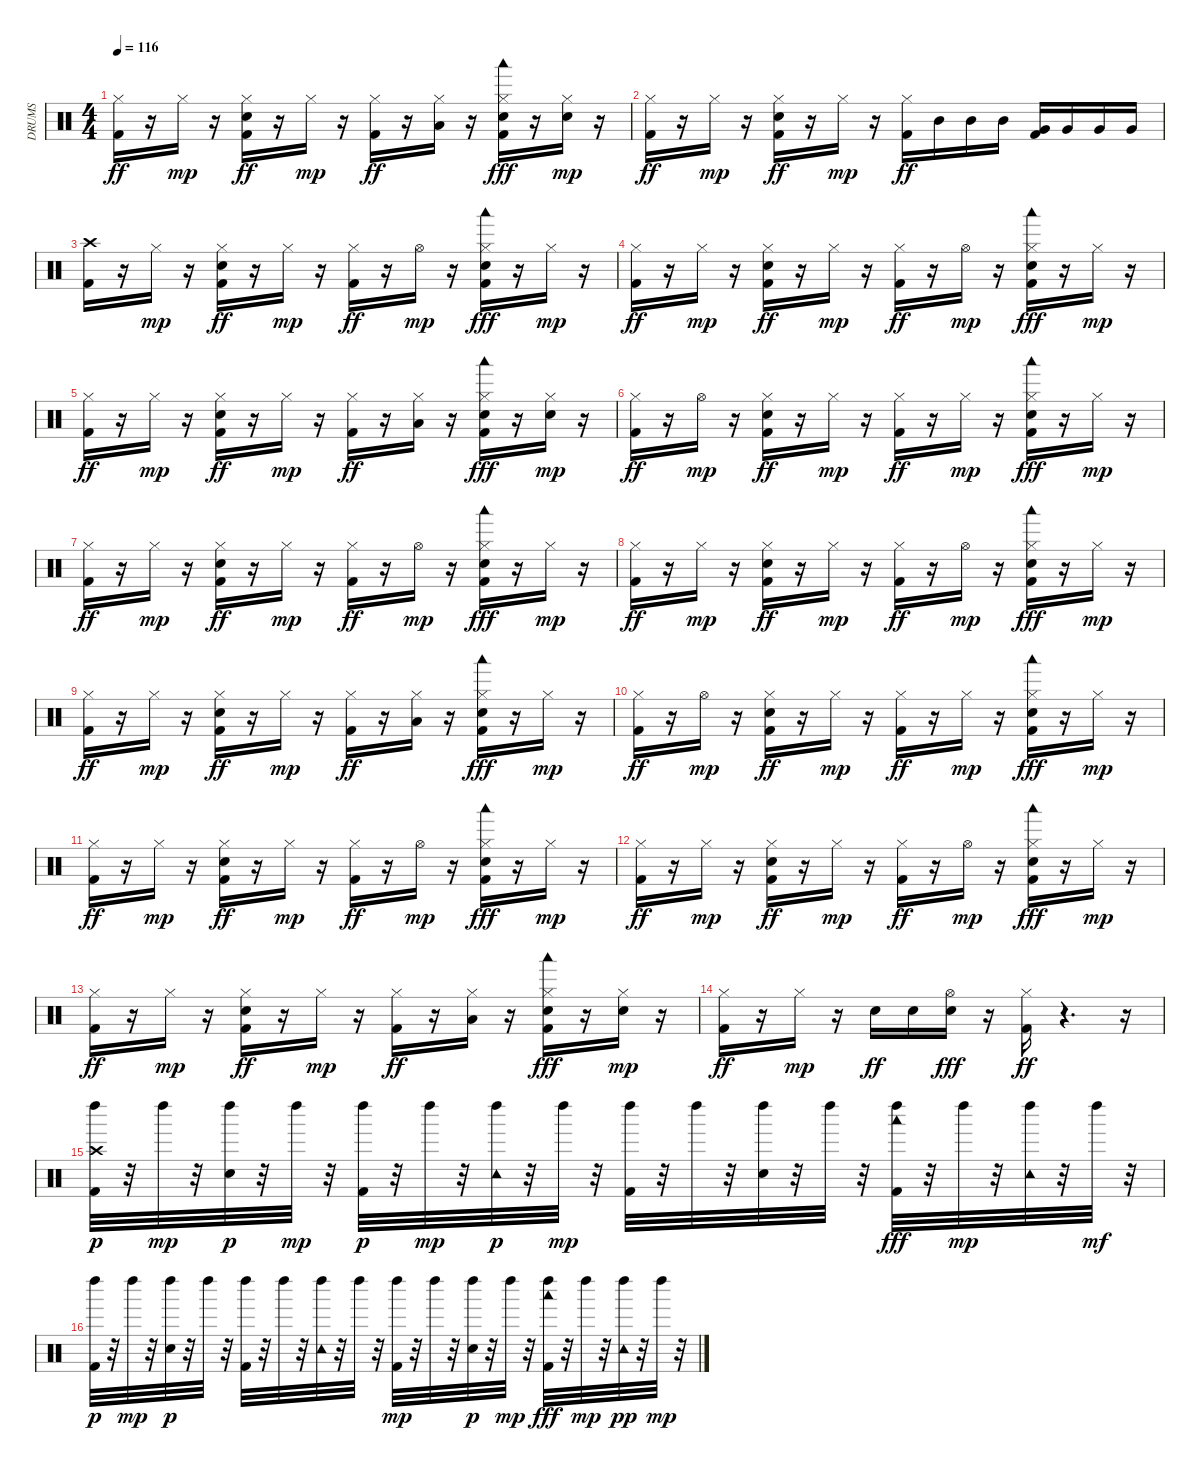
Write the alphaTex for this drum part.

\track ("DRUMS   " "DRUMS   ") {instrument percussion}
\staff {score}
\articulation defaults
\ts (4 4)
\tempo 116
\clef neutral
\ks c
("Hi-Hat (closed)" "Kick (hit) 2").16{dy ff} r.16 "Hi-Hat (closed)".16{dy mp} r.16 ("Electric Snare (hit)" "Hi-Hat (closed)" "Kick (hit) 2").16{dy ff} r.16 "Hi-Hat (closed)".16{dy mp} r.16 ("Hi-Hat (closed)" "Kick (hit) 2").16{dy ff} r.16 ("Hi-Hat (closed)" "Low Tom (hit)").16 r.16 ("Electric Snare (hit)" "Hi-Hat (closed)" "Kick (hit) 2" "Woodblock low (hit)").16{dy fff} r.16 ("Electric Snare (hit)" "Hi-Hat (closed)").16{dy mp} r.16 |
("Hi-Hat (closed)" "Kick (hit) 2").16{dy ff} r.16 "Hi-Hat (closed)".16{dy mp} r.16 ("Electric Snare (hit)" "Hi-Hat (closed)" "Kick (hit) 2").16{dy ff} r.16 "Hi-Hat (closed)".16{dy mp} r.16 ("Hi-Hat (closed)" "Kick (hit) 2").16{dy ff} "Mid Tom (hit)".16 "Mid Tom (hit)".16 "Mid Tom (hit)".16 ("Very Low Tom (hit)" "Kick (hit) 2").16 "Very Low Tom (hit)".16 "Very Low Tom (hit)".16 "Very Low Tom (hit)".16 |
("Crash high (hit)" "Kick (hit) 2").16 r.16 "Hi-Hat (closed)".16{dy mp} r.16 ("Electric Snare (hit)" "Hi-Hat (closed)" "Kick (hit) 2").16{dy ff} r.16 "Hi-Hat (closed)".16{dy mp} r.16 ("Hi-Hat (closed)" "Kick (hit) 2").16{dy ff} r.16 "Hi-Hat (open)".16{dy mp} r.16 ("Electric Snare (hit)" "Hi-Hat (closed)" "Kick (hit) 2" "Woodblock low (hit)").16{dy fff} r.16 "Hi-Hat (closed)".16{dy mp} r.16 |
("Hi-Hat (closed)" "Kick (hit) 2").16{dy ff} r.16 "Hi-Hat (closed)".16{dy mp} r.16 ("Electric Snare (hit)" "Hi-Hat (closed)" "Kick (hit) 2").16{dy ff} r.16 "Hi-Hat (closed)".16{dy mp} r.16 ("Hi-Hat (closed)" "Kick (hit) 2").16{dy ff} r.16 "Hi-Hat (open)".16{dy mp} r.16 ("Electric Snare (hit)" "Hi-Hat (closed)" "Kick (hit) 2" "Woodblock low (hit)").16{dy fff} r.16 "Hi-Hat (closed)".16{dy mp} r.16 |
("Hi-Hat (closed)" "Kick (hit) 2").16{dy ff} r.16 "Hi-Hat (closed)".16{dy mp} r.16 ("Electric Snare (hit)" "Hi-Hat (closed)" "Kick (hit) 2").16{dy ff} r.16 "Hi-Hat (closed)".16{dy mp} r.16 ("Hi-Hat (closed)" "Kick (hit) 2").16{dy ff} r.16 ("Hi-Hat (closed)" "Low Tom (hit)").16 r.16 ("Electric Snare (hit)" "Hi-Hat (closed)" "Kick (hit) 2" "Woodblock low (hit)").16{dy fff} r.16 ("Electric Snare (hit)" "Hi-Hat (closed)").16{dy mp} r.16 |
("Hi-Hat (closed)" "Kick (hit) 2").16{dy ff} r.16 "Hi-Hat (open)".16{dy mp} r.16 ("Electric Snare (hit)" "Hi-Hat (closed)" "Kick (hit) 2").16{dy ff} r.16 "Hi-Hat (closed)".16{dy mp} r.16 ("Hi-Hat (closed)" "Kick (hit) 2").16{dy ff} r.16 "Hi-Hat (closed)".16{dy mp} r.16 ("Electric Snare (hit)" "Hi-Hat (closed)" "Kick (hit) 2" "Woodblock low (hit)").16{dy fff} r.16 "Hi-Hat (closed)".16{dy mp} r.16 |
("Hi-Hat (closed)" "Kick (hit) 2").16{dy ff} r.16 "Hi-Hat (closed)".16{dy mp} r.16 ("Electric Snare (hit)" "Hi-Hat (closed)" "Kick (hit) 2").16{dy ff} r.16 "Hi-Hat (closed)".16{dy mp} r.16 ("Hi-Hat (closed)" "Kick (hit) 2").16{dy ff} r.16 "Hi-Hat (open)".16{dy mp} r.16 ("Electric Snare (hit)" "Hi-Hat (closed)" "Kick (hit) 2" "Woodblock low (hit)").16{dy fff} r.16 "Hi-Hat (closed)".16{dy mp} r.16 |
("Hi-Hat (closed)" "Kick (hit) 2").16{dy ff} r.16 "Hi-Hat (closed)".16{dy mp} r.16 ("Electric Snare (hit)" "Hi-Hat (closed)" "Kick (hit) 2").16{dy ff} r.16 "Hi-Hat (closed)".16{dy mp} r.16 ("Hi-Hat (closed)" "Kick (hit) 2").16{dy ff} r.16 "Hi-Hat (open)".16{dy mp} r.16 ("Electric Snare (hit)" "Hi-Hat (closed)" "Kick (hit) 2" "Woodblock low (hit)").16{dy fff} r.16 "Hi-Hat (closed)".16{dy mp} r.16 |
("Hi-Hat (closed)" "Kick (hit) 2").16{dy ff} r.16 "Hi-Hat (closed)".16{dy mp} r.16 ("Electric Snare (hit)" "Hi-Hat (closed)" "Kick (hit) 2").16{dy ff} r.16 "Hi-Hat (closed)".16{dy mp} r.16 ("Hi-Hat (closed)" "Kick (hit) 2").16{dy ff} r.16 ("Hi-Hat (closed)" "Low Tom (hit)").16 r.16 ("Electric Snare (hit)" "Hi-Hat (closed)" "Kick (hit) 2" "Woodblock low (hit)").16{dy fff} r.16 "Hi-Hat (closed)".16{dy mp} r.16 |
("Hi-Hat (closed)" "Kick (hit) 2").16{dy ff} r.16 "Hi-Hat (open)".16{dy mp} r.16 ("Electric Snare (hit)" "Hi-Hat (closed)" "Kick (hit) 2").16{dy ff} r.16 "Hi-Hat (closed)".16{dy mp} r.16 ("Hi-Hat (closed)" "Kick (hit) 2").16{dy ff} r.16 "Hi-Hat (closed)".16{dy mp} r.16 ("Electric Snare (hit)" "Hi-Hat (closed)" "Kick (hit) 2" "Woodblock low (hit)").16{dy fff} r.16 "Hi-Hat (closed)".16{dy mp} r.16 |
("Hi-Hat (closed)" "Kick (hit) 2").16{dy ff} r.16 "Hi-Hat (closed)".16{dy mp} r.16 ("Electric Snare (hit)" "Hi-Hat (closed)" "Kick (hit) 2").16{dy ff} r.16 "Hi-Hat (closed)".16{dy mp} r.16 ("Hi-Hat (closed)" "Kick (hit) 2").16{dy ff} r.16 "Hi-Hat (open)".16{dy mp} r.16 ("Electric Snare (hit)" "Hi-Hat (closed)" "Kick (hit) 2" "Woodblock low (hit)").16{dy fff} r.16 "Hi-Hat (closed)".16{dy mp} r.16 |
("Hi-Hat (closed)" "Kick (hit) 2").16{dy ff} r.16 "Hi-Hat (closed)".16{dy mp} r.16 ("Electric Snare (hit)" "Hi-Hat (closed)" "Kick (hit) 2").16{dy ff} r.16 "Hi-Hat (closed)".16{dy mp} r.16 ("Hi-Hat (closed)" "Kick (hit) 2").16{dy ff} r.16 "Hi-Hat (open)".16{dy mp} r.16 ("Electric Snare (hit)" "Hi-Hat (closed)" "Kick (hit) 2" "Woodblock low (hit)").16{dy fff} r.16 "Hi-Hat (closed)".16{dy mp} r.16 |
("Hi-Hat (closed)" "Kick (hit) 2").16{dy ff} r.16 "Hi-Hat (closed)".16{dy mp} r.16 ("Electric Snare (hit)" "Hi-Hat (closed)" "Kick (hit) 2").16{dy ff} r.16 "Hi-Hat (closed)".16{dy mp} r.16 ("Hi-Hat (closed)" "Kick (hit) 2").16{dy ff} r.16 ("Hi-Hat (closed)" "Low Tom (hit)").16 r.16 ("Electric Snare (hit)" "Hi-Hat (closed)" "Kick (hit) 2" "Woodblock low (hit)").16{dy fff} r.16 ("Electric Snare (hit)" "Hi-Hat (closed)").16{dy mp} r.16 |
("Hi-Hat (closed)" "Kick (hit) 2").16{dy ff} r.16 "Hi-Hat (closed)".16{dy mp} r.16 "Electric Snare (hit)".16{dy ff} "Electric Snare (hit)".16 ("Electric Snare (hit)" "Hi-Hat (open)").16{dy fff} r.16 ("Hi-Hat (closed)" "Kick (hit) 2").16{dy ff} r.4{d} r.16 |
("Kick (hit) 2" "Crash high (hit)" "Left Maraca (hit)").32{dy p} r.32 "Left Maraca (hit)".32{dy mp} r.32 ("Snare (hit) 2" "Left Maraca (hit)").32{dy p} r.32 "Left Maraca (hit)".32{dy mp} r.32 ("Kick (hit) 2" "Left Maraca (hit)").32{dy p} r.32 "Left Maraca (hit)".32{dy mp} r.32 ("Tambourine (hit)" "Left Maraca (hit)").32{dy p} r.32 "Left Maraca (hit)".32{dy mp} r.32 ("Kick (hit) 2" "Left Maraca (hit)").32 r.32 "Left Maraca (hit)".32 r.32 ("Snare (hit) 2" "Left Maraca (hit)").32 r.32 "Left Maraca (hit)".32 r.32 ("Kick (hit) 2" "Left Maraca (hit)" "Woodblock low (hit)").32{dy fff} r.32 "Left Maraca (hit)".32{dy mp} r.32 ("Tambourine (hit)" "Left Maraca (hit)").32 r.32 "Left Maraca (hit)".32{dy mf} r.32 |
("Kick (hit) 2" "Left Maraca (hit)").32{dy p} r.32 "Left Maraca (hit)".32{dy mp} r.32 ("Snare (hit) 2" "Left Maraca (hit)").32{dy p} r.32 "Left Maraca (hit)".32 r.32 ("Kick (hit) 2" "Left Maraca (hit)").32 r.32 "Left Maraca (hit)".32 r.32 ("Tambourine (hit)" "Left Maraca (hit)").32 r.32 "Left Maraca (hit)".32 r.32 ("Kick (hit) 2" "Left Maraca (hit)").32{dy mp} r.32 "Left Maraca (hit)".32 r.32 ("Snare (hit) 2" "Left Maraca (hit)").32{dy p} r.32 "Left Maraca (hit)".32{dy mp} r.32 ("Kick (hit) 2" "Left Maraca (hit)" "Woodblock low (hit)").32{dy fff} r.32 "Left Maraca (hit)".32{dy mp} r.32 ("Tambourine (hit)" "Left Maraca (hit)").32{dy pp} r.32 "Left Maraca (hit)".32{dy mp} r.32
